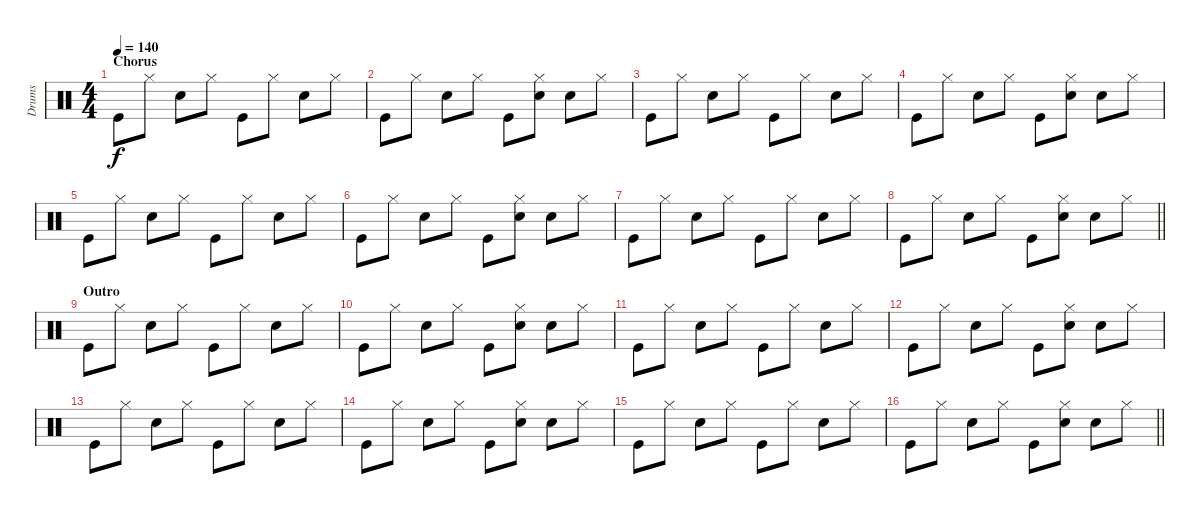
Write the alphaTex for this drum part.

\track ("Drums" "Drums") {instrument percussion}
\staff {score}
\articulation defaults
\ts (4 4)
\section ("" "Chorus")
\tempo 140
\clef neutral
\ks c "Kick (hit)".8{dy f} "Hi-Hat (closed)".8 "Hand Clap (hit)".8 "Hi-Hat (closed)".8 "Kick (hit)".8 "Hi-Hat (closed)".8 "Hand Clap (hit)".8 "Hi-Hat (closed)".8
|
"Kick (hit)".8 "Hi-Hat (closed)".8 "Hand Clap (hit)".8 "Hi-Hat (closed)".8 "Kick (hit)".8 ("Hi-Hat (closed)" "Hand Clap (hit)").8 "Hand Clap (hit)".8 "Hi-Hat (closed)".8 |
"Kick (hit)".8 "Hi-Hat (closed)".8 "Hand Clap (hit)".8 "Hi-Hat (closed)".8 "Kick (hit)".8 "Hi-Hat (closed)".8 "Hand Clap (hit)".8 "Hi-Hat (closed)".8 |
"Kick (hit)".8 "Hi-Hat (closed)".8 "Hand Clap (hit)".8 "Hi-Hat (closed)".8 "Kick (hit)".8 ("Hi-Hat (closed)" "Hand Clap (hit)").8 "Hand Clap (hit)".8 "Hi-Hat (closed)".8 |
"Kick (hit)".8 "Hi-Hat (closed)".8 "Hand Clap (hit)".8 "Hi-Hat (closed)".8 "Kick (hit)".8 "Hi-Hat (closed)".8 "Hand Clap (hit)".8 "Hi-Hat (closed)".8 |
"Kick (hit)".8 "Hi-Hat (closed)".8 "Hand Clap (hit)".8 "Hi-Hat (closed)".8 "Kick (hit)".8 ("Hi-Hat (closed)" "Hand Clap (hit)").8 "Hand Clap (hit)".8 "Hi-Hat (closed)".8 |
"Kick (hit)".8 "Hi-Hat (closed)".8 "Hand Clap (hit)".8 "Hi-Hat (closed)".8 "Kick (hit)".8 "Hi-Hat (closed)".8 "Hand Clap (hit)".8 "Hi-Hat (closed)".8 |
\barLineRight lightlight "Kick (hit)".8 "Hi-Hat (closed)".8 "Hand Clap (hit)".8 "Hi-Hat (closed)".8 "Kick (hit)".8
("Hi-Hat (closed)" "Hand Clap (hit)").8 "Hand Clap (hit)".8 "Hi-Hat (closed)".8 |
\section ("" "Outro")
"Kick (hit)".8 "Hi-Hat (closed)".8 "Hand Clap (hit)".8 "Hi-Hat (closed)".8 "Kick (hit)".8 "Hi-Hat (closed)".8 "Hand Clap (hit)".8 "Hi-Hat (closed)".8 |
"Kick (hit)".8 "Hi-Hat (closed)".8 "Hand Clap (hit)".8 "Hi-Hat (closed)".8 "Kick (hit)".8 ("Hi-Hat (closed)" "Hand Clap (hit)").8 "Hand Clap (hit)".8 "Hi-Hat (closed)".8 |
"Kick (hit)".8 "Hi-Hat (closed)".8 "Hand Clap (hit)".8 "Hi-Hat (closed)".8 "Kick (hit)".8 "Hi-Hat (closed)".8 "Hand Clap (hit)".8 "Hi-Hat (closed)".8 |
"Kick (hit)".8 "Hi-Hat (closed)".8 "Hand Clap (hit)".8 "Hi-Hat (closed)".8 "Kick (hit)".8 ("Hi-Hat (closed)" "Hand Clap (hit)").8 "Hand Clap (hit)".8 "Hi-Hat (closed)".8 |
"Kick (hit)".8 "Hi-Hat (closed)".8 "Hand Clap (hit)".8 "Hi-Hat (closed)".8 "Kick (hit)".8 "Hi-Hat (closed)".8 "Hand Clap (hit)".8 "Hi-Hat (closed)".8 |
"Kick (hit)".8 "Hi-Hat (closed)".8 "Hand Clap (hit)".8 "Hi-Hat (closed)".8 "Kick (hit)".8 ("Hi-Hat (closed)" "Hand Clap (hit)").8 "Hand Clap (hit)".8 "Hi-Hat (closed)".8 |
"Kick (hit)".8 "Hi-Hat (closed)".8 "Hand Clap (hit)".8 "Hi-Hat (closed)".8 "Kick (hit)".8 "Hi-Hat (closed)".8 "Hand Clap (hit)".8 "Hi-Hat (closed)".8 |
\barLineRight lightlight "Kick (hit)".8 "Hi-Hat (closed)".8 "Hand Clap (hit)".8 "Hi-Hat (closed)".8 "Kick (hit)".8
("Hi-Hat (closed)" "Hand Clap (hit)").8 "Hand Clap (hit)".8 "Hi-Hat (closed)".8
